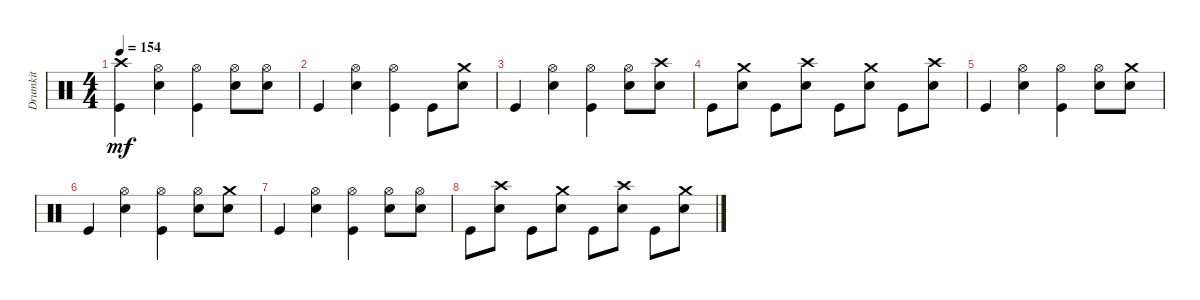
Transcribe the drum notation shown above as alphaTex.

\track ("Drumkit" "Drumkit") {instrument percussion}
\staff {score}
\articulation defaults
\ts (4 4)
\tempo 154
\clef neutral
\ks c
("Kick (hit)" "Crash high (hit)").4{dy mf} ("Snare (hit) 2" "Hi-Hat (open)").4 ("Kick (hit)" "Hi-Hat (open)").4 ("Snare (hit) 2" "Hi-Hat (open)").8 ("Snare (hit) 2" "Hi-Hat (open)").8 |
"Kick (hit)".4 ("Snare (hit) 2" "Hi-Hat (open)").4 ("Kick (hit)" "Hi-Hat (open)").4 "Kick (hit)".8 ("Snare (hit) 2" "Crash medium (hit)").8 |
"Kick (hit)".4 ("Snare (hit) 2" "Hi-Hat (open)").4 ("Kick (hit)" "Hi-Hat (open)").4 ("Snare (hit) 2" "Hi-Hat (open)").8 ("Snare (hit) 2" "Crash high (hit)").8 |
"Kick (hit)".8 ("Snare (hit) 2" "Crash medium (hit)").8 "Kick (hit)".8 ("Snare (hit) 2" "Crash high (hit)").8 "Kick (hit)".8 ("Snare (hit) 2" "Crash medium (hit)").8 "Kick (hit)".8 ("Snare (hit) 2" "Crash high (hit)").8 |
"Kick (hit)".4 ("Snare (hit) 2" "Hi-Hat (open)").4 ("Kick (hit)" "Hi-Hat (open)").4 ("Snare (hit) 2" "Hi-Hat (open)").8 ("Snare (hit) 2" "Crash medium (hit)").8 |
"Kick (hit)".4 ("Snare (hit) 2" "Hi-Hat (open)").4 ("Kick (hit)" "Hi-Hat (open)").4 ("Snare (hit) 2" "Hi-Hat (open)").8 ("Snare (hit) 2" "Crash medium (hit)").8 |
"Kick (hit)".4 ("Snare (hit) 2" "Hi-Hat (open)").4 ("Kick (hit)" "Hi-Hat (open)").4 ("Snare (hit) 2" "Hi-Hat (open)").8 ("Snare (hit) 2" "Hi-Hat (open)").8 |
"Kick (hit)".8 ("Snare (hit) 2" "Crash high (hit)").8 "Kick (hit)".8 ("Snare (hit) 2" "Crash medium (hit)").8 "Kick (hit)".8 ("Snare (hit) 2" "Crash high (hit)").8 "Kick (hit)".8 ("Snare (hit) 2" "Crash medium (hit)").8
